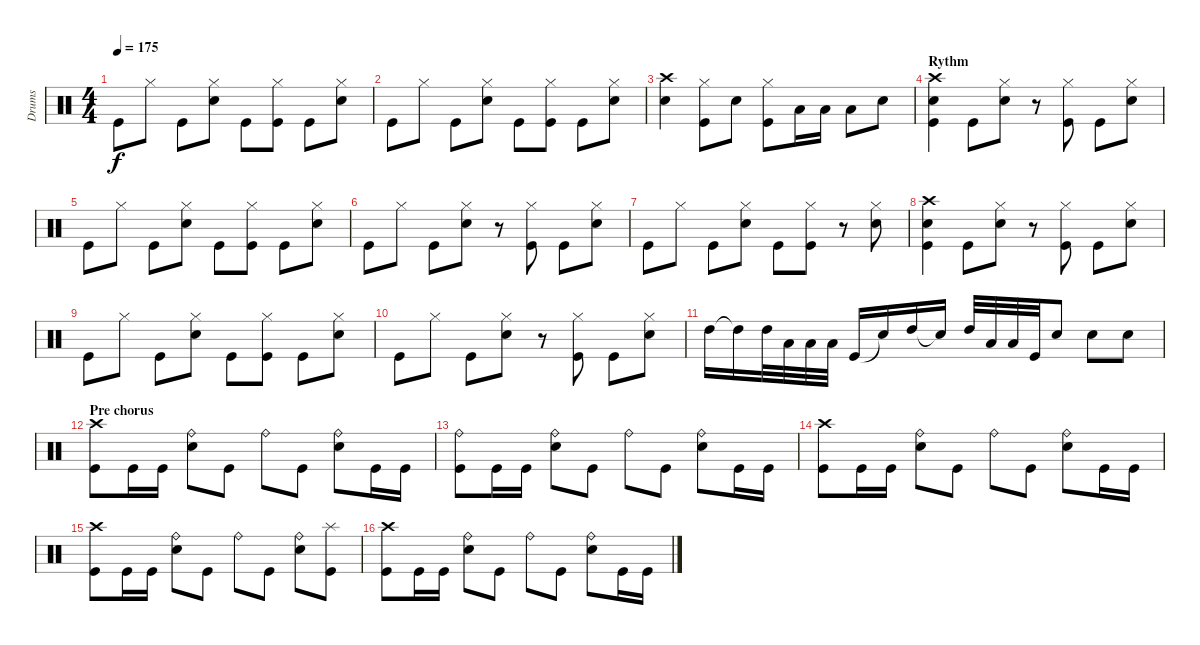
\track ("Drums" "Drums") {instrument percussion}
\staff {score}
\articulation defaults
\ts (4 4)
\tempo 175
\clef neutral
\ks c "Kick (hit)".8{dy f} "Hi-Hat (closed)".8 "Kick (hit)".8
("Hi-Hat (closed)" "Electric Snare (hit)").8 "Kick (hit)".8 ("Hi-Hat (closed)" "Kick (hit)").8 "Kick (hit)".8 ("Hi-Hat (closed)" "Electric Snare (hit)").8 |
"Kick (hit)".8 "Hi-Hat (closed)".8 "Kick (hit)".8 ("Hi-Hat (closed)" "Electric Snare (hit)").8 "Kick (hit)".8 ("Hi-Hat (closed)" "Kick (hit)").8 "Kick (hit)".8 ("Hi-Hat (closed)" "Electric Snare (hit)").8 |
("Crash high (hit)" "Electric Snare (hit)").4 ("Hi-Hat (closed)" "Kick (hit)").8 "Electric Snare (hit)".8 ("Hi-Hat (closed)" "Kick (hit)").8 "Low Tom (hit)".16 "Low Tom (hit)".16 "Low Tom (hit)".8 "Electric Snare (hit)".8 |
\section ("" "Rythm")
("Crash high (hit)" "Electric Snare (hit)" "Kick (hit)").4 "Kick (hit)".8 ("Hi-Hat (closed)" "Electric Snare (hit)").8 r.8 ("Hi-Hat (closed)" "Kick (hit)").8 "Kick (hit)".8 ("Hi-Hat (closed)" "Electric Snare (hit)").8 |
"Kick (hit)".8 "Hi-Hat (closed)".8 "Kick (hit)".8 ("Hi-Hat (closed)" "Electric Snare (hit)").8 "Kick (hit)".8 ("Hi-Hat (closed)" "Kick (hit)").8 "Kick (hit)".8 ("Hi-Hat (closed)" "Electric Snare (hit)").8 |
"Kick (hit)".8 "Hi-Hat (closed)".8 "Kick (hit)".8 ("Hi-Hat (closed)" "Electric Snare (hit)").8 r.8 ("Hi-Hat (closed)" "Kick (hit)").8 "Kick (hit)".8 ("Hi-Hat (closed)" "Electric Snare (hit)").8 |
"Kick (hit)".8 "Hi-Hat (closed)".8 "Kick (hit)".8 ("Hi-Hat (closed)" "Electric Snare (hit)").8 "Kick (hit)".8 ("Hi-Hat (closed)" "Kick (hit)").8 r.8 ("Hi-Hat (closed)" "Electric Snare (hit)").8 |
("Crash high (hit)" "Electric Snare (hit)" "Kick (hit)").4 "Kick (hit)".8 ("Hi-Hat (closed)" "Electric Snare (hit)").8 r.8 ("Hi-Hat (closed)" "Kick (hit)").8 "Kick (hit)".8 ("Hi-Hat (closed)" "Electric Snare (hit)").8 |
"Kick (hit)".8 "Hi-Hat (closed)".8 "Kick (hit)".8 ("Hi-Hat (closed)" "Electric Snare (hit)").8 "Kick (hit)".8 ("Hi-Hat (closed)" "Kick (hit)").8 "Kick (hit)".8 ("Hi-Hat (closed)" "Electric Snare (hit)").8 |
"Kick (hit)".8 "Hi-Hat (closed)".8 "Kick (hit)".8 ("Hi-Hat (closed)" "Electric Snare (hit)").8 r.8 ("Hi-Hat (closed)" "Kick (hit)").8 "Kick (hit)".8 ("Hi-Hat (closed)" "Electric Snare (hit)").8 |
"High Tom (hit)".16 "High Tom (hit)"{t}.16 "High Tom (hit)".32 "Low Tom (hit)".32 "Low Tom (hit)".32 "Low Tom (hit)".32 "Kick (hit)".16 "Snare (hit)"{t}.16 "High Tom (hit)".16 "Snare (hit)"{t}.16 "High Tom (hit)".32 "Low Tom (hit)".32 "Low Tom (hit)".32 "Kick (hit)".32 "Electric Snare (hit)".8 "Electric Snare (hit)".8 "Electric Snare (hit)".8 |
\section ("" "Pre chorus")
("Crash high (hit)" "Kick (hit)").8 "Kick (hit)".16 "Kick (hit)".16 ("Ride (bell)" "Electric Snare (hit)").8 "Kick (hit)".8 "Ride (bell)".8 "Kick (hit)".8 ("Ride (bell)" "Electric Snare (hit)").8 "Kick (hit)".16 "Kick (hit)".16 |
("Ride (bell)" "Kick (hit)").8 "Kick (hit)".16 "Kick (hit)".16 ("Ride (bell)" "Electric Snare (hit)").8 "Kick (hit)".8 "Ride (bell)".8 "Kick (hit)".8 ("Ride (bell)" "Electric Snare (hit)").8 "Kick (hit)".16 "Kick (hit)".16 |
("Crash high (hit)" "Kick (hit)").8 "Kick (hit)".16 "Kick (hit)".16 ("Ride (bell)" "Electric Snare (hit)").8 "Kick (hit)".8 "Ride (bell)".8 "Kick (hit)".8 ("Ride (bell)" "Electric Snare (hit)").8 "Kick (hit)".16 "Kick (hit)".16 |
("Crash high (hit)" "Kick (hit)").8 "Kick (hit)".16 "Kick (hit)".16 ("Ride (bell)" "Electric Snare (hit)").8 "Kick (hit)".8 "Ride (bell)".8 "Kick (hit)".8 ("Ride (bell)" "Electric Snare (hit)").8 ("Splash (hit)" "Kick (hit)").8 |
("Crash high (hit)" "Kick (hit)").8 "Kick (hit)".16 "Kick (hit)".16 ("Ride (bell)" "Electric Snare (hit)").8 "Kick (hit)".8 "Ride (bell)".8 "Kick (hit)".8 ("Ride (bell)" "Electric Snare (hit)").8 "Kick (hit)".16 "Kick (hit)".16
